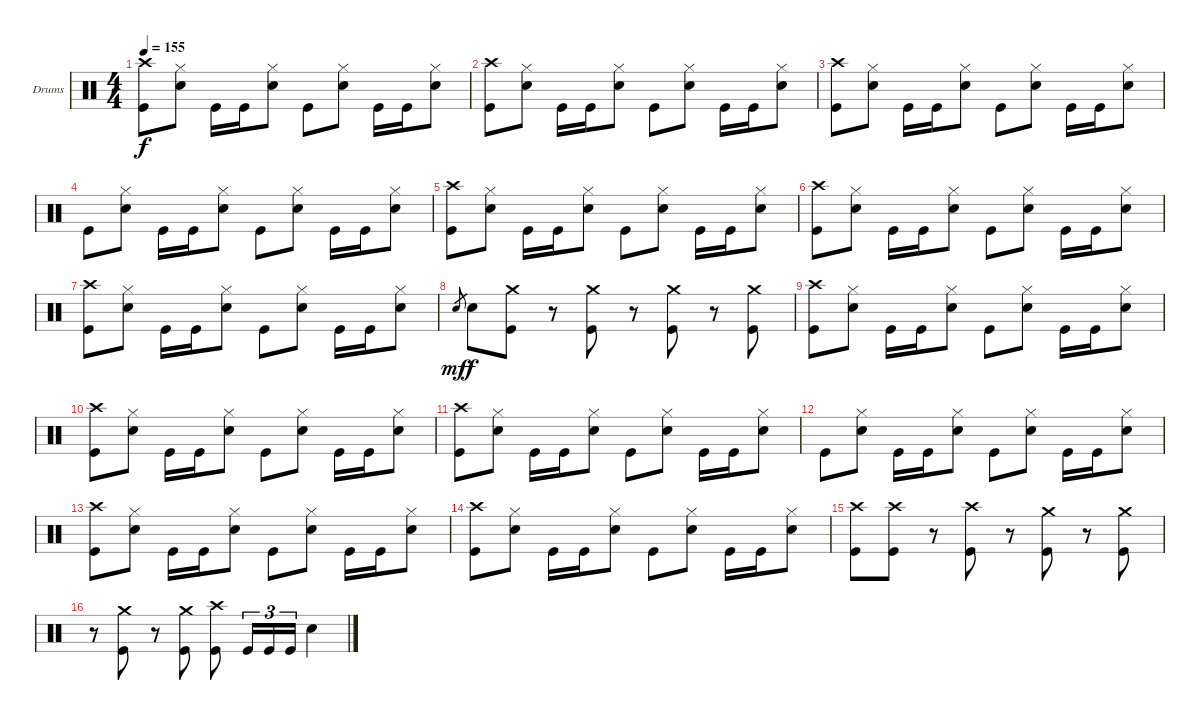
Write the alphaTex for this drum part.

\bracketExtendMode groupsimilarinstruments
\firstSystemTrackNameOrientation horizontal
\otherSystemsTrackNameOrientation horizontal
\track ("Drumkit" "Drums") {instrument percussion}
\staff {score}
\articulation defaults
\ts (4 4)
\tempo 155
\clef neutral
\ks c
("Crash high (hit)" "Kick (hit)").8{dy f} ("Hi-Hat (closed)" "Snare (hit) 2").8 "Kick (hit)".16 "Kick (hit)".16 ("Hi-Hat (closed)" "Snare (hit) 2").8 "Kick (hit)".8 ("Hi-Hat (closed)" "Snare (hit) 2").8 "Kick (hit)".16 "Kick (hit)".16 ("Hi-Hat (closed)" "Snare (hit) 2").8 |
("Crash high (hit)" "Kick (hit)").8 ("Hi-Hat (closed)" "Snare (hit) 2").8 "Kick (hit)".16 "Kick (hit)".16 ("Hi-Hat (closed)" "Snare (hit) 2").8 "Kick (hit)".8 ("Hi-Hat (closed)" "Snare (hit) 2").8 "Kick (hit)".16 "Kick (hit)".16 ("Hi-Hat (closed)" "Snare (hit) 2").8 |
("Crash high (hit)" "Kick (hit)").8 ("Hi-Hat (closed)" "Snare (hit) 2").8 "Kick (hit)".16 "Kick (hit)".16 ("Hi-Hat (closed)" "Snare (hit) 2").8 "Kick (hit)".8 ("Hi-Hat (closed)" "Snare (hit) 2").8 "Kick (hit)".16 "Kick (hit)".16 ("Hi-Hat (closed)" "Snare (hit) 2").8 |
"Kick (hit)".8 ("Hi-Hat (closed)" "Snare (hit) 2").8 "Kick (hit)".16 "Kick (hit)".16 ("Hi-Hat (closed)" "Snare (hit) 2").8 "Kick (hit)".8 ("Hi-Hat (closed)" "Snare (hit) 2").8 "Kick (hit)".16 "Kick (hit)".16 ("Hi-Hat (closed)" "Snare (hit) 2").8 |
("Crash high (hit)" "Kick (hit)").8 ("Hi-Hat (closed)" "Snare (hit) 2").8 "Kick (hit)".16 "Kick (hit)".16 ("Hi-Hat (closed)" "Snare (hit) 2").8 "Kick (hit)".8 ("Hi-Hat (closed)" "Snare (hit) 2").8 "Kick (hit)".16 "Kick (hit)".16 ("Hi-Hat (closed)" "Snare (hit) 2").8 |
("Crash high (hit)" "Kick (hit)").8 ("Hi-Hat (closed)" "Snare (hit) 2").8 "Kick (hit)".16 "Kick (hit)".16 ("Hi-Hat (closed)" "Snare (hit) 2").8 "Kick (hit)".8 ("Hi-Hat (closed)" "Snare (hit) 2").8 "Kick (hit)".16 "Kick (hit)".16 ("Hi-Hat (closed)" "Snare (hit) 2").8 |
("Crash high (hit)" "Kick (hit)").8 ("Hi-Hat (closed)" "Snare (hit) 2").8 "Kick (hit)".16 "Kick (hit)".16 ("Hi-Hat (closed)" "Snare (hit) 2").8 "Kick (hit)".8 ("Hi-Hat (closed)" "Snare (hit) 2").8 "Kick (hit)".16 "Kick (hit)".16 ("Hi-Hat (closed)" "Snare (hit) 2").8 |
"Snare (hit) 2".8{gr dy mf} "Snare (hit) 2".8{dy f} ("Crash medium (hit)" "Kick (hit)").8 r.8 ("Crash medium (hit)" "Kick (hit)").8 r.8 ("Crash medium (hit)" "Kick (hit)").8 r.8 ("Crash medium (hit)" "Kick (hit)").8 |
("Crash high (hit)" "Kick (hit)").8 ("Hi-Hat (closed)" "Snare (hit) 2").8 "Kick (hit)".16 "Kick (hit)".16 ("Hi-Hat (closed)" "Snare (hit) 2").8 "Kick (hit)".8 ("Hi-Hat (closed)" "Snare (hit) 2").8 "Kick (hit)".16 "Kick (hit)".16 ("Hi-Hat (closed)" "Snare (hit) 2").8 |
("Crash high (hit)" "Kick (hit)").8 ("Hi-Hat (closed)" "Snare (hit) 2").8 "Kick (hit)".16 "Kick (hit)".16 ("Hi-Hat (closed)" "Snare (hit) 2").8 "Kick (hit)".8 ("Hi-Hat (closed)" "Snare (hit) 2").8 "Kick (hit)".16 "Kick (hit)".16 ("Hi-Hat (closed)" "Snare (hit) 2").8 |
("Crash high (hit)" "Kick (hit)").8 ("Hi-Hat (closed)" "Snare (hit) 2").8 "Kick (hit)".16 "Kick (hit)".16 ("Hi-Hat (closed)" "Snare (hit) 2").8 "Kick (hit)".8 ("Hi-Hat (closed)" "Snare (hit) 2").8 "Kick (hit)".16 "Kick (hit)".16 ("Hi-Hat (closed)" "Snare (hit) 2").8 |
"Kick (hit)".8 ("Hi-Hat (closed)" "Snare (hit) 2").8 "Kick (hit)".16 "Kick (hit)".16 ("Hi-Hat (closed)" "Snare (hit) 2").8 "Kick (hit)".8 ("Hi-Hat (closed)" "Snare (hit) 2").8 "Kick (hit)".16 "Kick (hit)".16 ("Hi-Hat (closed)" "Snare (hit) 2").8 |
("Crash high (hit)" "Kick (hit)").8 ("Hi-Hat (closed)" "Snare (hit) 2").8 "Kick (hit)".16 "Kick (hit)".16 ("Hi-Hat (closed)" "Snare (hit) 2").8 "Kick (hit)".8 ("Hi-Hat (closed)" "Snare (hit) 2").8 "Kick (hit)".16 "Kick (hit)".16 ("Hi-Hat (closed)" "Snare (hit) 2").8 |
("Crash high (hit)" "Kick (hit)").8 ("Hi-Hat (closed)" "Snare (hit) 2").8 "Kick (hit)".16 "Kick (hit)".16 ("Hi-Hat (closed)" "Snare (hit) 2").8 "Kick (hit)".8 ("Hi-Hat (closed)" "Snare (hit) 2").8 "Kick (hit)".16 "Kick (hit)".16 ("Hi-Hat (closed)" "Snare (hit) 2").8 |
("Crash high (hit)" "Kick (hit)").8 ("Crash high (hit)" "Kick (hit)").8 r.8 ("Crash high (hit)" "Kick (hit)").8 r.8 ("Crash medium (hit)" "Kick (hit)").8 r.8 ("Crash medium (hit)" "Kick (hit)").8 |
r.8 ("Crash medium (hit)" "Kick (hit)").8 r.8 ("Crash medium (hit)" "Kick (hit)").8 ("Crash high (hit)" "Kick (hit)").8 "Kick (hit)".16{tu (3 2)} "Kick (hit)".16{tu (3 2)} "Kick (hit)".16{tu (3 2)} "Snare (hit) 2".4
